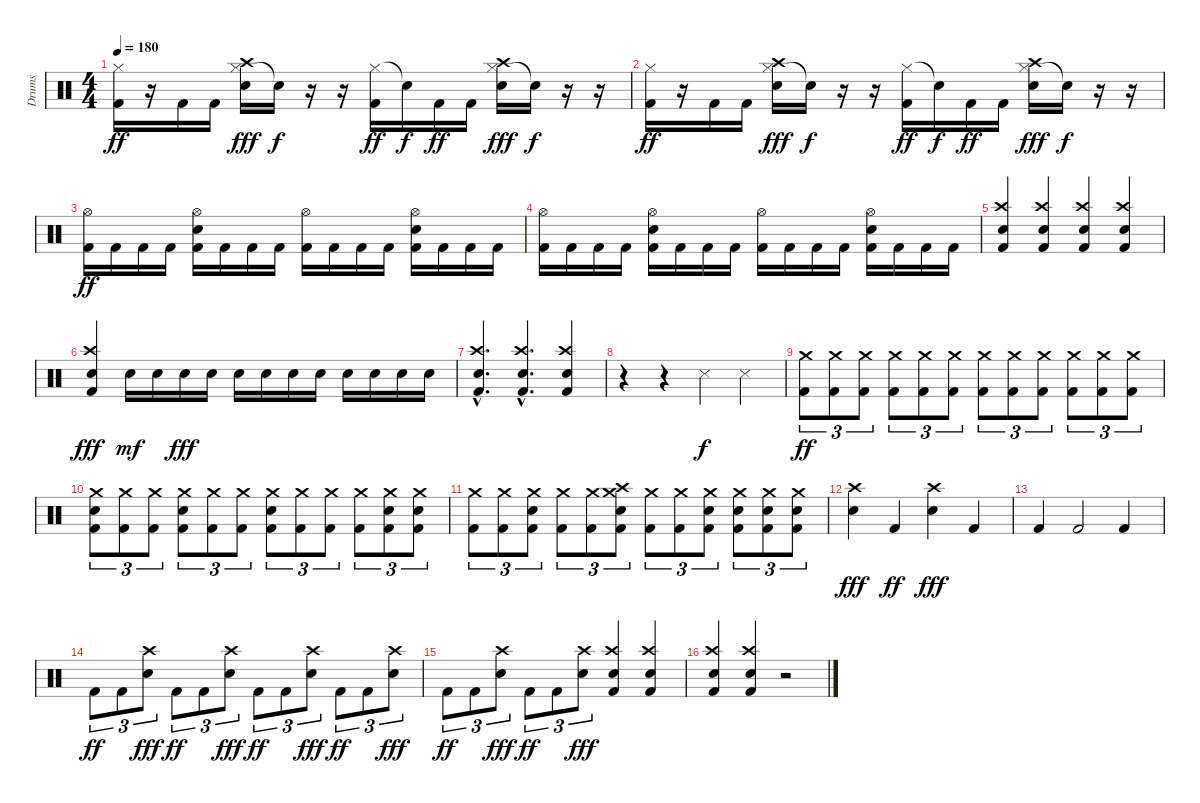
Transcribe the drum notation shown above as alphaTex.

\track ("Drums" "Drums") {instrument percussion}
\staff {score}
\articulation defaults
\ts (4 4)
\tempo 180
\clef neutral
\ks c
("Hi-Hat (closed)" "Kick (hit) 2").16{dy ff} r.16 "Kick (hit) 2".16 "Kick (hit) 2".16 ("Hi-Hat (closed)" "Crash high (hit)" "Snare (hit) 2").16{dy fff} "Snare (hit)"{t}.16{dy f} r.16 r.16 ("Hi-Hat (closed)" "Kick (hit) 2").16{dy ff} "Snare (hit)"{t}.16{dy f} "Kick (hit) 2".16{dy ff} "Kick (hit) 2".16 ("Hi-Hat (closed)" "Crash high (hit)" "Snare (hit) 2").16{dy fff} "Snare (hit)"{t}.16{dy f} r.16 r.16 |
("Hi-Hat (closed)" "Kick (hit) 2").16{dy ff} r.16 "Kick (hit) 2".16 "Kick (hit) 2".16 ("Hi-Hat (closed)" "Crash high (hit)" "Snare (hit) 2").16{dy fff} "Snare (hit)"{t}.16{dy f} r.16 r.16 ("Hi-Hat (closed)" "Kick (hit) 2").16{dy ff} "Snare (hit)"{t}.16{dy f} "Kick (hit) 2".16{dy ff} "Kick (hit) 2".16 ("Hi-Hat (closed)" "Crash high (hit)" "Snare (hit) 2").16{dy fff} "Snare (hit)"{t}.16{dy f} r.16 r.16 |
("Hi-Hat (open)" "Kick (hit) 2").16{dy ff} "Kick (hit) 2".16 "Kick (hit) 2".16 "Kick (hit) 2".16 ("Hi-Hat (open)" "Snare (hit) 2" "Kick (hit) 2").16 "Kick (hit) 2".16 "Kick (hit) 2".16 "Kick (hit) 2".16 ("Hi-Hat (open)" "Kick (hit) 2").16 "Kick (hit) 2".16 "Kick (hit) 2".16 "Kick (hit) 2".16 ("Hi-Hat (open)" "Snare (hit) 2" "Kick (hit) 2").16 "Kick (hit) 2".16 "Kick (hit) 2".16 "Kick (hit) 2".16 |
("Hi-Hat (open)" "Kick (hit) 2").16 "Kick (hit) 2".16 "Kick (hit) 2".16 "Kick (hit) 2".16 ("Hi-Hat (open)" "Snare (hit) 2" "Kick (hit) 2").16 "Kick (hit) 2".16 "Kick (hit) 2".16 "Kick (hit) 2".16 ("Hi-Hat (open)" "Kick (hit) 2").16 "Kick (hit) 2".16 "Kick (hit) 2".16 "Kick (hit) 2".16 ("Hi-Hat (open)" "Snare (hit) 2" "Kick (hit) 2").16 "Kick (hit) 2".16 "Kick (hit) 2".16 "Kick (hit) 2".16 |
("Crash high (hit)" "Snare (hit) 2" "Kick (hit) 2").4 ("Crash high (hit)" "Snare (hit) 2" "Kick (hit) 2").4 ("Crash high (hit)" "Snare (hit) 2" "Kick (hit) 2").4 ("Crash high (hit)" "Snare (hit) 2" "Kick (hit) 2").4 |
("Crash high (hit)" "Snare (hit) 2" "Kick (hit) 2").4{dy fff} "Snare (hit) 2".16{dy mf} "Snare (hit) 2".16 "Snare (hit) 2".16{dy fff} "Snare (hit) 2".16 "Snare (hit) 2".16 "Snare (hit) 2".16 "Snare (hit) 2".16 "Snare (hit) 2".16 "Snare (hit) 2".16 "Snare (hit) 2".16 "Snare (hit) 2".16 "Snare (hit) 2".16 |
("Crash high (hit)"{hac} "Snare (hit) 2"{hac} "Kick (hit) 2"{hac}).4{d} ("Crash high (hit)"{hac} "Snare (hit) 2"{hac} "Kick (hit) 2"{hac}).4{d} ("Crash high (hit)" "Snare (hit) 2" "Kick (hit) 2").4 |
r.4 r.4 "Snare (side stick) 3".4{dy f} "Snare (side stick) 3".4 |
("Crash medium (hit)" "Kick (hit) 2").8{tu (3 2) dy ff} ("Crash medium (hit)" "Kick (hit) 2").8{tu (3 2)} ("Crash medium (hit)" "Kick (hit) 2").8{tu (3 2)} ("Crash medium (hit)" "Kick (hit) 2").8{tu (3 2)} ("Crash medium (hit)" "Kick (hit) 2").8{tu (3 2)} ("Crash medium (hit)" "Kick (hit) 2").8{tu (3 2)} ("Crash medium (hit)" "Kick (hit) 2").8{tu (3 2)} ("Crash medium (hit)" "Kick (hit) 2").8{tu (3 2)} ("Crash medium (hit)" "Kick (hit) 2").8{tu (3 2)} ("Crash medium (hit)" "Kick (hit) 2").8{tu (3 2)} ("Crash medium (hit)" "Kick (hit) 2").8{tu (3 2)} ("Crash medium (hit)" "Kick (hit) 2").8{tu (3 2)} |
("Crash medium (hit)" "Snare (hit) 2" "Kick (hit) 2").8{tu (3 2)} ("Crash medium (hit)" "Kick (hit) 2").8{tu (3 2)} ("Crash medium (hit)" "Kick (hit) 2").8{tu (3 2)} ("Crash medium (hit)" "Snare (hit) 2" "Kick (hit) 2").8{tu (3 2)} ("Crash medium (hit)" "Kick (hit) 2").8{tu (3 2)} ("Crash medium (hit)" "Kick (hit) 2").8{tu (3 2)} ("Crash medium (hit)" "Snare (hit) 2" "Kick (hit) 2").8{tu (3 2)} ("Crash medium (hit)" "Kick (hit) 2").8{tu (3 2)} ("Crash medium (hit)" "Kick (hit) 2").8{tu (3 2)} ("Crash medium (hit)" "Kick (hit) 2").8{tu (3 2)} ("Crash medium (hit)" "Snare (hit) 2" "Kick (hit) 2").8{tu (3 2)} ("Crash medium (hit)" "Snare (hit) 2" "Kick (hit) 2").8{tu (3 2)} |
("Crash medium (hit)" "Kick (hit) 2").8{tu (3 2)} ("Crash medium (hit)" "Kick (hit) 2").8{tu (3 2)} ("Crash medium (hit)" "Snare (hit) 2" "Kick (hit) 2").8{tu (3 2)} ("Crash medium (hit)" "Kick (hit) 2").8{tu (3 2)} ("Crash medium (hit)" "Kick (hit) 2").8{tu (3 2)} ("Crash medium (hit)" "Crash high (hit)" "Snare (hit) 2" "Kick (hit) 2").8{tu (3 2)} ("Crash medium (hit)" "Kick (hit) 2").8{tu (3 2)} ("Crash medium (hit)" "Kick (hit) 2").8{tu (3 2)} ("Crash medium (hit)" "Snare (hit) 2" "Kick (hit) 2").8{tu (3 2)} ("Crash medium (hit)" "Snare (hit) 2" "Kick (hit) 2").8{tu (3 2)} ("Crash medium (hit)" "Snare (hit) 2" "Kick (hit) 2").8{tu (3 2)} ("Crash medium (hit)" "Snare (hit) 2" "Kick (hit) 2").8{tu (3 2)} |
("Crash high (hit)" "Snare (hit) 2").4{dy fff} "Kick (hit) 2".4{dy ff} ("Crash high (hit)" "Snare (hit) 2").4{dy fff} "Kick (hit) 2".4 |
"Kick (hit) 2".4 "Kick (hit) 2".2 "Kick (hit) 2".4 |
"Kick (hit) 2".8{tu (3 2) dy ff} "Kick (hit) 2".8{tu (3 2)} ("Crash high (hit)" "Snare (hit) 2").8{tu (3 2) dy fff} "Kick (hit) 2".8{tu (3 2) dy ff} "Kick (hit) 2".8{tu (3 2)} ("Crash high (hit)" "Snare (hit) 2").8{tu (3 2) dy fff} "Kick (hit) 2".8{tu (3 2) dy ff} "Kick (hit) 2".8{tu (3 2)} ("Crash high (hit)" "Snare (hit) 2").8{tu (3 2) dy fff} "Kick (hit) 2".8{tu (3 2) dy ff} "Kick (hit) 2".8{tu (3 2)} ("Crash high (hit)" "Snare (hit) 2").8{tu (3 2) dy fff} |
"Kick (hit) 2".8{tu (3 2) dy ff} "Kick (hit) 2".8{tu (3 2)} ("Crash high (hit)" "Snare (hit) 2").8{tu (3 2) dy fff} "Kick (hit) 2".8{tu (3 2) dy ff} "Kick (hit) 2".8{tu (3 2)} ("Crash high (hit)" "Snare (hit) 2").8{tu (3 2) dy fff} ("Crash high (hit)" "Snare (hit) 2" "Kick (hit) 2").4 ("Crash high (hit)" "Snare (hit) 2" "Kick (hit) 2").4 |
("Crash high (hit)" "Kick (hit) 2" "Snare (hit) 2").4 ("Crash high (hit)" "Kick (hit) 2" "Snare (hit) 2").4 r.2
